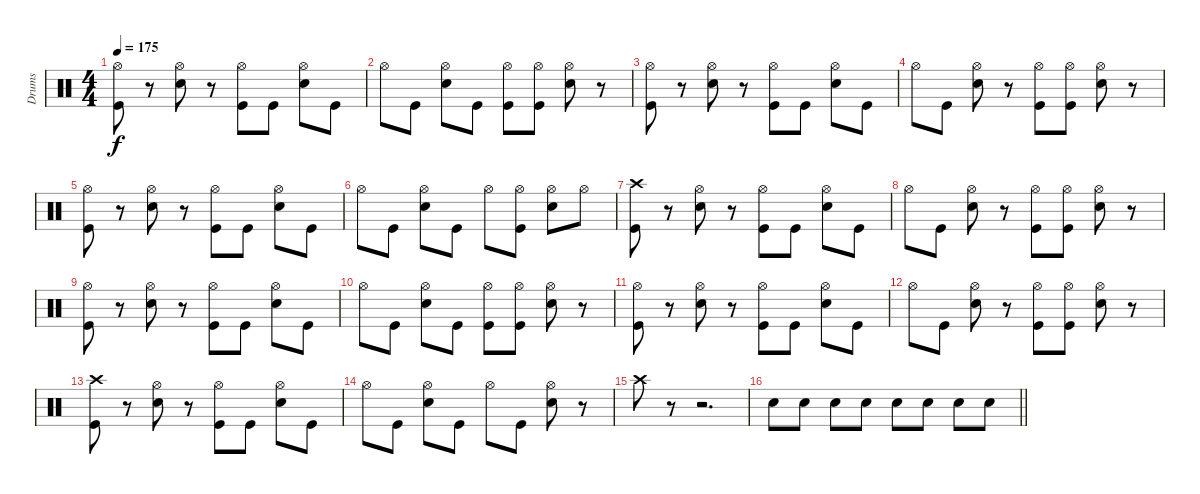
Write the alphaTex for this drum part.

\track ("Drums" "Drums") {instrument percussion}
\staff {score}
\articulation defaults
\ts (4 4)
\tempo 175
\clef neutral
\ks c
("Hi-Hat (open)" "Kick (hit)").8{dy f} r.8 ("Hi-Hat (open)" "Snare (hit) 2").8 r.8 ("Hi-Hat (open)" "Kick (hit)").8 "Kick (hit)".8 ("Hi-Hat (open)" "Snare (hit) 2").8 "Kick (hit)".8 |
"Hi-Hat (open)".8 "Kick (hit)".8 ("Hi-Hat (open)" "Snare (hit) 2").8 "Kick (hit)".8 ("Hi-Hat (open)" "Kick (hit)").8 ("Hi-Hat (open)" "Kick (hit)").8 ("Hi-Hat (open)" "Snare (hit) 2").8 r.8 |
("Hi-Hat (open)" "Kick (hit)").8 r.8 ("Hi-Hat (open)" "Snare (hit) 2").8 r.8 ("Hi-Hat (open)" "Kick (hit)").8 "Kick (hit)".8 ("Hi-Hat (open)" "Snare (hit) 2").8 "Kick (hit)".8 |
"Hi-Hat (open)".8 "Kick (hit)".8 ("Hi-Hat (open)" "Snare (hit) 2").8 r.8 ("Hi-Hat (open)" "Kick (hit)").8 ("Hi-Hat (open)" "Kick (hit)").8 ("Hi-Hat (open)" "Snare (hit) 2").8 r.8 |
("Hi-Hat (open)" "Kick (hit)").8 r.8 ("Hi-Hat (open)" "Snare (hit) 2").8 r.8 ("Hi-Hat (open)" "Kick (hit)").8 "Kick (hit)".8 ("Hi-Hat (open)" "Snare (hit) 2").8 "Kick (hit)".8 |
"Hi-Hat (open)".8 "Kick (hit)".8 ("Hi-Hat (open)" "Snare (hit) 2").8 "Kick (hit)".8 "Hi-Hat (open)".8 ("Hi-Hat (open)" "Kick (hit)").8 ("Hi-Hat (open)" "Snare (hit) 2").8 "Hi-Hat (open)".8 |
("Crash high (hit)" "Kick (hit)").8 r.8 ("Hi-Hat (open)" "Snare (hit) 2").8 r.8 ("Hi-Hat (open)" "Kick (hit)").8 "Kick (hit)".8 ("Hi-Hat (open)" "Snare (hit) 2").8 "Kick (hit)".8 |
"Hi-Hat (open)".8 "Kick (hit)".8 ("Hi-Hat (open)" "Snare (hit) 2").8 r.8 ("Hi-Hat (open)" "Kick (hit)").8 ("Hi-Hat (open)" "Kick (hit)").8 ("Hi-Hat (open)" "Snare (hit) 2").8 r.8 |
("Hi-Hat (open)" "Kick (hit)").8 r.8 ("Hi-Hat (open)" "Snare (hit) 2").8 r.8 ("Hi-Hat (open)" "Kick (hit)").8 "Kick (hit)".8 ("Hi-Hat (open)" "Snare (hit) 2").8 "Kick (hit)".8 |
"Hi-Hat (open)".8 "Kick (hit)".8 ("Hi-Hat (open)" "Snare (hit) 2").8 "Kick (hit)".8 ("Hi-Hat (open)" "Kick (hit)").8 ("Hi-Hat (open)" "Kick (hit)").8 ("Hi-Hat (open)" "Snare (hit) 2").8 r.8 |
("Hi-Hat (open)" "Kick (hit)").8 r.8 ("Hi-Hat (open)" "Snare (hit) 2").8 r.8 ("Hi-Hat (open)" "Kick (hit)").8 "Kick (hit)".8 ("Hi-Hat (open)" "Snare (hit) 2").8 "Kick (hit)".8 |
"Hi-Hat (open)".8 "Kick (hit)".8 ("Hi-Hat (open)" "Snare (hit) 2").8 r.8 ("Hi-Hat (open)" "Kick (hit)").8 ("Hi-Hat (open)" "Kick (hit)").8 ("Hi-Hat (open)" "Snare (hit) 2").8 r.8 |
("Crash high (hit)" "Kick (hit)").8 r.8 ("Hi-Hat (open)" "Snare (hit) 2").8 r.8 ("Hi-Hat (open)" "Kick (hit)").8 "Kick (hit)".8 ("Hi-Hat (open)" "Snare (hit) 2").8 "Kick (hit)".8 |
"Hi-Hat (open)".8 "Kick (hit)".8 ("Hi-Hat (open)" "Snare (hit) 2").8 "Kick (hit)".8 "Hi-Hat (open)".8 "Kick (hit)".8 ("Hi-Hat (open)" "Snare (hit) 2").8 r.8 |
"Crash high (hit)".8 r.8 r.2{d} |
\barLineRight lightlight "Snare (hit) 2".8 "Snare (hit) 2".8 "Snare (hit) 2".8 "Snare (hit) 2".8 "Snare (hit) 2".8 "Snare (hit) 2".8 "Snare (hit) 2".8 "Snare (hit) 2".8
